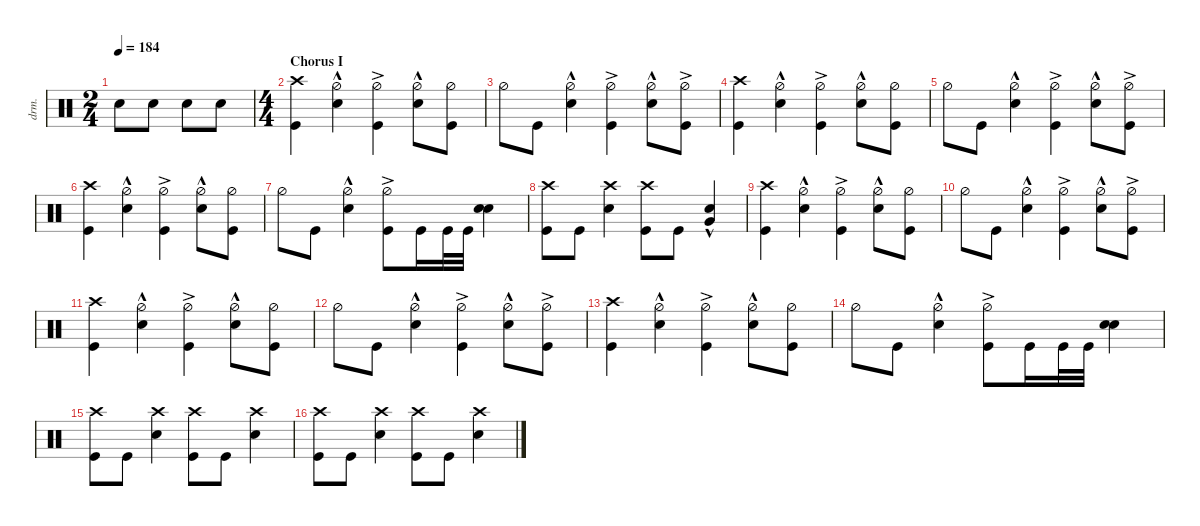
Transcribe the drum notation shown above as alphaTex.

\defaultSystemsLayout 4
\hideDynamics
\bracketExtendMode nobrackets
\otherSystemsTrackNameOrientation horizontal
\track ("Drums" "drm.") {defaultSystemsLayout 4 multiBarRest instrument percussion}
\staff {score}
\articulation defaults
\ts (2 4)
\beaming (8 2 2 2 2)
\tempo 184
\clef neutral
\ks c "Snare (hit) 2".8{dy f} "Snare (hit) 2".8 "Snare (hit) 2".8 "Snare (hit) 2".8
|
\ts (4 4)
\beaming (8 2 2 2 2)
\section ("" "Chorus I")
("Crash high (hit)" "Kick (hit)").4 ("Hi-Hat (half)"{hac} "Snare (hit) 2").4 ("Hi-Hat (half)"{ac} "Kick (hit)").4 ("Hi-Hat (half)"{hac} "Snare (hit) 2").8 ("Kick (hit)" "Hi-Hat (half)").8 |
"Hi-Hat (half)".8 "Kick (hit)".8 ("Hi-Hat (half)"{hac} "Snare (hit) 2").4 ("Hi-Hat (half)"{ac} "Kick (hit)").4 ("Hi-Hat (half)"{hac} "Snare (hit) 2").8 ("Kick (hit)" "Hi-Hat (half)"{ac}).8 |
("Crash high (hit)" "Kick (hit)").4 ("Hi-Hat (half)"{hac} "Snare (hit) 2").4 ("Hi-Hat (half)"{ac} "Kick (hit)").4 ("Hi-Hat (half)"{hac} "Snare (hit) 2").8 ("Kick (hit)" "Hi-Hat (half)").8 |
"Hi-Hat (half)".8 "Kick (hit)".8 ("Hi-Hat (half)"{hac} "Snare (hit) 2").4 ("Hi-Hat (half)"{ac} "Kick (hit)").4 ("Hi-Hat (half)"{hac} "Snare (hit) 2").8 ("Kick (hit)" "Hi-Hat (half)"{ac}).8 |
("Crash high (hit)" "Kick (hit)").4 ("Hi-Hat (half)"{hac} "Snare (hit) 2").4 ("Hi-Hat (half)"{ac} "Kick (hit)").4 ("Hi-Hat (half)"{hac} "Snare (hit) 2").8 ("Kick (hit)" "Hi-Hat (half)").8 |
"Hi-Hat (half)".8 "Kick (hit)".8 ("Hi-Hat (half)"{hac} "Snare (hit) 2").4 ("Hi-Hat (half)"{ac} "Kick (hit)").8 "Kick (hit)".16 "Kick (hit)".32 "Kick (hit)".32 ("Snare (hit) 2" "Snare (hit) 2").4 |
("Crash high (hit)" "Kick (hit)").8 "Kick (hit)".8 ("Crash high (hit)" "Snare (hit) 2").4 ("Crash high (hit)" "Kick (hit)").8 "Kick (hit)".8 ("Snare (hit) 2" "Very Low Tom (hit)"{hac}).4{dy ff} |
("Crash high (hit)" "Kick (hit)").4{dy f} ("Hi-Hat (half)"{hac} "Snare (hit) 2").4 ("Hi-Hat (half)"{ac} "Kick (hit)").4 ("Hi-Hat (half)"{hac} "Snare (hit) 2").8 ("Kick (hit)" "Hi-Hat (half)").8 |
"Hi-Hat (half)".8 "Kick (hit)".8 ("Hi-Hat (half)"{hac} "Snare (hit) 2").4 ("Hi-Hat (half)"{ac} "Kick (hit)").4 ("Hi-Hat (half)"{hac} "Snare (hit) 2").8 ("Kick (hit)" "Hi-Hat (half)"{ac}).8 |
("Crash high (hit)" "Kick (hit)").4 ("Hi-Hat (half)"{hac} "Snare (hit) 2").4 ("Hi-Hat (half)"{ac} "Kick (hit)").4 ("Hi-Hat (half)"{hac} "Snare (hit) 2").8 ("Kick (hit)" "Hi-Hat (half)").8 |
"Hi-Hat (half)".8 "Kick (hit)".8 ("Hi-Hat (half)"{hac} "Snare (hit) 2").4 ("Hi-Hat (half)"{ac} "Kick (hit)").4 ("Hi-Hat (half)"{hac} "Snare (hit) 2").8 ("Kick (hit)" "Hi-Hat (half)"{ac}).8 |
("Crash high (hit)" "Kick (hit)").4 ("Hi-Hat (half)"{hac} "Snare (hit) 2").4 ("Hi-Hat (half)"{ac} "Kick (hit)").4 ("Hi-Hat (half)"{hac} "Snare (hit) 2").8 ("Kick (hit)" "Hi-Hat (half)").8 |
"Hi-Hat (half)".8 "Kick (hit)".8 ("Hi-Hat (half)"{hac} "Snare (hit) 2").4 ("Hi-Hat (half)"{ac} "Kick (hit)").8 "Kick (hit)".16 "Kick (hit)".32 "Kick (hit)".32 ("Snare (hit) 2" "Snare (hit) 2").4 |
("Crash high (hit)" "Kick (hit)").8 "Kick (hit)".8 ("Crash high (hit)" "Snare (hit) 2").4 ("Crash high (hit)" "Kick (hit)").8 "Kick (hit)".8 ("Crash high (hit)" "Snare (hit) 2").4 |
("Crash high (hit)" "Kick (hit)").8 "Kick (hit)".8 ("Crash high (hit)" "Snare (hit) 2").4 ("Crash high (hit)" "Kick (hit)").8 "Kick (hit)".8 ("Crash high (hit)" "Snare (hit) 2").4
